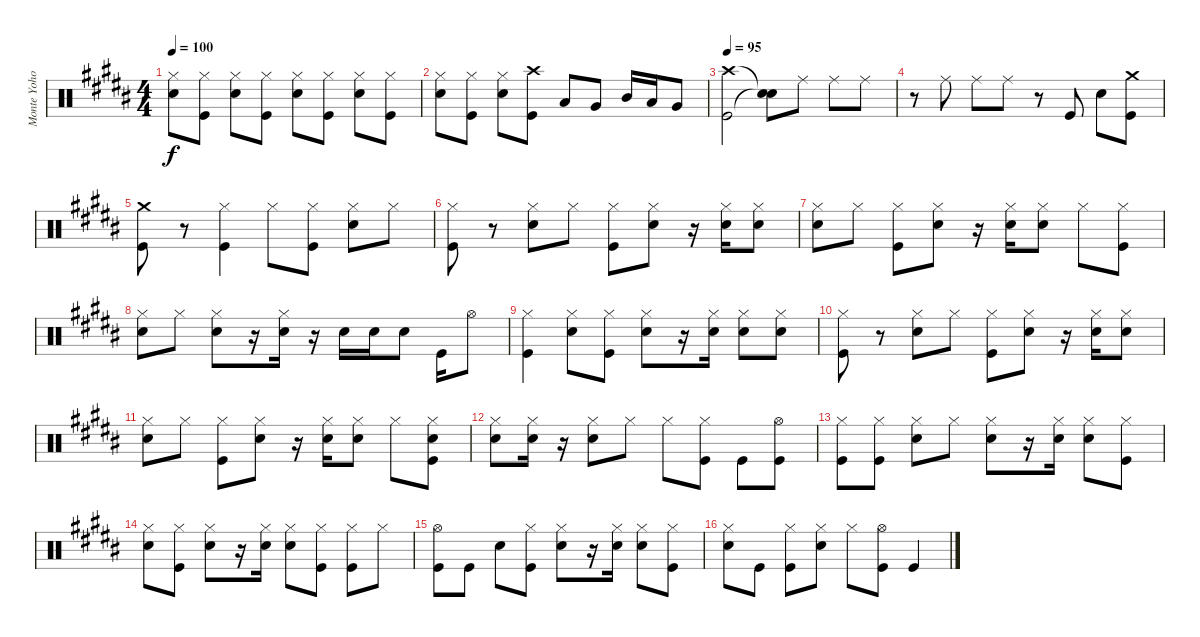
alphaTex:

\track ("Monte Yoho Drums" "Monte Yoho") {instrument percussion}
\staff {score}
\articulation defaults
\ts (4 4)
\tempo 100
\clef neutral
\ks g#minor
("Hi-Hat (closed)" "Snare (hit) 2").8{dy f} ("Hi-Hat (closed)" "Kick (hit)").8 ("Hi-Hat (closed)" "Snare (hit) 2").8 ("Hi-Hat (closed)" "Kick (hit)").8 ("Hi-Hat (closed)" "Snare (hit) 2").8 ("Hi-Hat (closed)" "Kick (hit)").8 ("Hi-Hat (closed)" "Snare (hit) 2").8 ("Hi-Hat (closed)" "Kick (hit)").8 |
("Hi-Hat (closed)" "Snare (hit) 2").8 ("Hi-Hat (closed)" "Kick (hit)").8 ("Hi-Hat (closed)" "Snare (hit) 2").8 ("Crash high (hit)" "Kick (hit)").8 "Low Tom (hit)".8 "Very Low Tom (hit)".8 "Mid Tom (hit)".16 "Low Tom (hit)".16 "Very Low Tom (hit)".8 |
\tempo 95
("Crash high (hit)" "Kick (hit)").2 ("Snare (hit)"{t} "Snare (hit)"{t}).8 "Ride (middle)".8{volume 8} "Ride (middle)".8 "Ride (middle)".8 |
r.8 "Ride (middle)".8 "Ride (middle)".8 "Ride (middle)".8 r.8 "Kick (hit)".8{volume 13} "Snare (hit) 2".8 ("Crash medium (hit)" "Kick (hit)").8 |
("Crash medium (hit)" "Kick (hit)").8 r.8 ("Hi-Hat (closed)" "Kick (hit)").4{volume 9} "Hi-Hat (closed)".8 ("Hi-Hat (closed)" "Kick (hit)").8 ("Hi-Hat (closed)" "Snare (hit) 2").8 "Hi-Hat (closed)".8 |
("Hi-Hat (closed)" "Kick (hit)").8 r.8 ("Hi-Hat (closed)" "Snare (hit) 2").8 "Hi-Hat (closed)".8 ("Hi-Hat (closed)" "Kick (hit)").8 ("Hi-Hat (closed)" "Snare (hit) 2").8{volume 6} r.16 ("Hi-Hat (closed)" "Snare (hit) 2").16 ("Hi-Hat (closed)" "Snare (hit) 2").8 |
("Hi-Hat (closed)" "Snare (hit) 2").8{volume 9} "Hi-Hat (closed)".8 ("Hi-Hat (closed)" "Kick (hit)").8 ("Hi-Hat (closed)" "Snare (hit) 2").8{volume 8} r.16 ("Hi-Hat (closed)" "Snare (hit) 2").16 ("Hi-Hat (closed)" "Snare (hit) 2").8{volume 9} "Hi-Hat (closed)".8 ("Hi-Hat (closed)" "Kick (hit)").8 |
("Hi-Hat (closed)" "Snare (hit) 2").8 "Hi-Hat (closed)".8 ("Hi-Hat (closed)" "Snare (hit) 2").8 r.16 ("Hi-Hat (closed)" "Snare (hit) 2").16 r.16 "Snare (hit) 2".16 "Snare (hit) 2".16 "Snare (hit) 2".8 "Kick (hit)".16 "Hi-Hat (open)".8 |
("Hi-Hat (closed)" "Kick (hit)").4{volume 8} ("Hi-Hat (closed)" "Snare (hit) 2").8 ("Hi-Hat (closed)" "Kick (hit)").8 ("Hi-Hat (closed)" "Snare (hit) 2").8 r.16 ("Hi-Hat (closed)" "Snare (hit) 2").16{volume 8} ("Hi-Hat (closed)" "Snare (hit) 2").8 ("Hi-Hat (closed)" "Snare (hit) 2").8{volume 9} |
("Hi-Hat (closed)" "Kick (hit)").8 r.8 ("Hi-Hat (closed)" "Snare (hit) 2").8 "Hi-Hat (closed)".8 ("Hi-Hat (closed)" "Kick (hit)").8 ("Hi-Hat (closed)" "Snare (hit) 2").8{volume 6} r.16 ("Hi-Hat (closed)" "Snare (hit) 2").16{volume 8} ("Hi-Hat (closed)" "Snare (hit) 2").8 |
("Hi-Hat (closed)" "Snare (hit) 2").8{volume 9} "Hi-Hat (closed)".8 ("Hi-Hat (closed)" "Kick (hit)").8 ("Hi-Hat (closed)" "Snare (hit) 2").8{volume 8} r.16 ("Hi-Hat (closed)" "Snare (hit) 2").16 ("Hi-Hat (closed)" "Snare (hit) 2").8{volume 9} "Hi-Hat (closed)".8 ("Hi-Hat (closed)" "Snare (hit) 2" "Kick (hit)").8 |
("Hi-Hat (closed)" "Snare (hit) 2").8{volume 8} ("Hi-Hat (closed)" "Snare (hit) 2").16 r.16 ("Hi-Hat (closed)" "Snare (hit) 2").8{volume 9} "Hi-Hat (closed)".8 "Hi-Hat (closed)".8 ("Hi-Hat (closed)" "Kick (hit)").8 "Kick (hit)".8 ("Hi-Hat (open)" "Kick (hit)").8 |
("Hi-Hat (closed)" "Kick (hit)").8 ("Hi-Hat (closed)" "Kick (hit)").8 ("Hi-Hat (closed)" "Snare (hit) 2").8 "Hi-Hat (closed)".8 ("Hi-Hat (closed)" "Snare (hit) 2").8{volume 8} r.16 ("Hi-Hat (closed)" "Snare (hit) 2").16 ("Hi-Hat (closed)" "Snare (hit) 2").8{volume 9} ("Hi-Hat (closed)" "Kick (hit)").8 |
("Hi-Hat (closed)" "Snare (hit) 2").8 ("Hi-Hat (closed)" "Kick (hit)").8 ("Hi-Hat (closed)" "Snare (hit) 2").8{volume 8} r.16 ("Hi-Hat (closed)" "Snare (hit) 2").16 ("Hi-Hat (closed)" "Snare (hit) 2").8{volume 9} ("Hi-Hat (closed)" "Kick (hit)").8 ("Hi-Hat (closed)" "Kick (hit)").8 "Hi-Hat (closed)".8 |
("Hi-Hat (open)" "Kick (hit)").8 "Kick (hit)".8 "Snare (hit) 2".8 ("Hi-Hat (closed)" "Kick (hit)").8 ("Hi-Hat (closed)" "Snare (hit) 2").8{volume 8} r.16 ("Hi-Hat (closed)" "Snare (hit) 2").16 ("Hi-Hat (closed)" "Snare (hit) 2").8{volume 9} ("Hi-Hat (closed)" "Kick (hit)").8 |
("Hi-Hat (closed)" "Snare (hit) 2").8 "Kick (hit)".8 ("Hi-Hat (closed)" "Kick (hit)").8 ("Hi-Hat (closed)" "Snare (hit) 2").8 "Hi-Hat (closed)".8 ("Hi-Hat (open)" "Kick (hit)").8 "Kick (hit)".4
